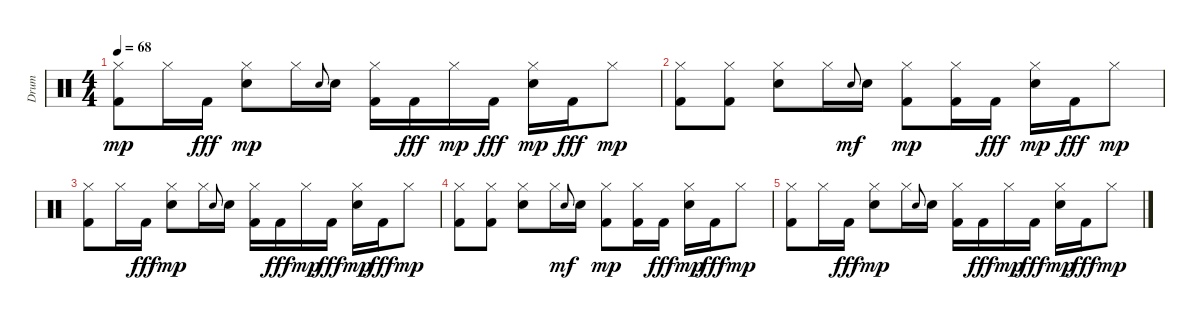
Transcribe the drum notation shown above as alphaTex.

\track ("Drum" "Drum") {instrument percussion}
\staff {score}
\articulation defaults
\ts (4 4)
\tempo 68
\clef neutral
\ks c
("Kick (hit) 2" "Hi-Hat (closed)").8{dy mp} "Hi-Hat (closed)".16 "Kick (hit) 2".16{dy fff} ("Electric Snare (hit)" "Hi-Hat (closed)").8{dy mp} "Hi-Hat (closed)".16 "Electric Snare (hit)".8{gr onbeat} "Electric Snare (hit)".16 ("Kick (hit) 2" "Hi-Hat (closed)").16 "Kick (hit) 2".16{dy fff} "Hi-Hat (closed)".16{dy mp} "Kick (hit) 2".16{dy fff} ("Electric Snare (hit)" "Hi-Hat (closed)").16{dy mp} "Kick (hit) 2".16{dy fff} "Hi-Hat (closed)".8{dy mp} |
("Kick (hit) 2" "Hi-Hat (closed)").8 ("Kick (hit) 2" "Hi-Hat (closed)").8 ("Electric Snare (hit)" "Hi-Hat (closed)").8 "Hi-Hat (closed)".16 "Electric Snare (hit)".8{gr onbeat dy mf} "Electric Snare (hit)".16 ("Kick (hit) 2" "Hi-Hat (closed)").8{dy mp} ("Kick (hit) 2" "Hi-Hat (closed)").16 "Kick (hit) 2".16{dy fff} ("Electric Snare (hit)" "Hi-Hat (closed)").16{dy mp} "Kick (hit) 2".16{dy fff} "Hi-Hat (closed)".8{dy mp} |
("Kick (hit) 2" "Hi-Hat (closed)").8 "Hi-Hat (closed)".16 "Kick (hit) 2".16{dy fff} ("Electric Snare (hit)" "Hi-Hat (closed)").8{dy mp} "Hi-Hat (closed)".16 "Electric Snare (hit)".8{gr onbeat} "Electric Snare (hit)".16 ("Kick (hit) 2" "Hi-Hat (closed)").16 "Kick (hit) 2".16{dy fff} "Hi-Hat (closed)".16{dy mp} "Kick (hit) 2".16{dy fff} ("Electric Snare (hit)" "Hi-Hat (closed)").16{dy mp} "Kick (hit) 2".16{dy fff} "Hi-Hat (closed)".8{dy mp} |
("Kick (hit) 2" "Hi-Hat (closed)").8 ("Kick (hit) 2" "Hi-Hat (closed)").8 ("Electric Snare (hit)" "Hi-Hat (closed)").8 "Hi-Hat (closed)".16 "Electric Snare (hit)".8{gr onbeat dy mf} "Electric Snare (hit)".16 ("Kick (hit) 2" "Hi-Hat (closed)").8{dy mp} ("Kick (hit) 2" "Hi-Hat (closed)").16 "Kick (hit) 2".16{dy fff} ("Electric Snare (hit)" "Hi-Hat (closed)").16{dy mp} "Kick (hit) 2".16{dy fff} "Hi-Hat (closed)".8{dy mp} |
("Kick (hit) 2" "Hi-Hat (closed)").8 "Hi-Hat (closed)".16 "Kick (hit) 2".16{dy fff} ("Electric Snare (hit)" "Hi-Hat (closed)").8{dy mp} "Hi-Hat (closed)".16 "Electric Snare (hit)".8{gr onbeat} "Electric Snare (hit)".16 ("Kick (hit) 2" "Hi-Hat (closed)").16 "Kick (hit) 2".16{dy fff} "Hi-Hat (closed)".16{dy mp} "Kick (hit) 2".16{dy fff} ("Electric Snare (hit)" "Hi-Hat (closed)").16{dy mp} "Kick (hit) 2".16{dy fff} "Hi-Hat (closed)".8{dy mp}
